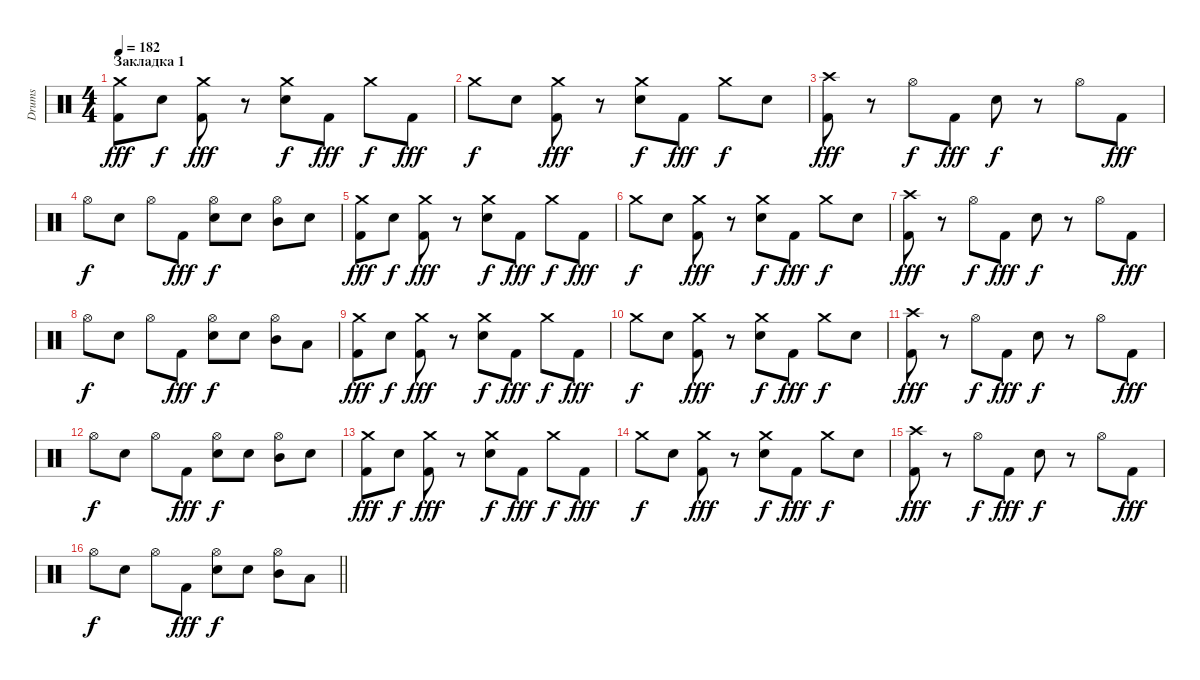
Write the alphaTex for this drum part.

\track ("Drums" "Drums") {instrument percussion}
\staff {score}
\articulation defaults
\ts (4 4)
\section ("" "Закладка 1")
\tempo 182
\clef neutral
\ks c
("Crash medium (hit)" "Kick (hit) 2").8{dy fff} "Electric Snare (hit)".8{dy f} ("Crash medium (hit)" "Kick (hit) 2").8{dy fff} r.8 ("Crash medium (hit)" "Electric Snare (hit)").8{dy f} "Kick (hit) 2".8{dy fff} "Crash medium (hit)".8{dy f} "Kick (hit) 2".8{dy fff} |
"Crash medium (hit)".8{dy f} "Electric Snare (hit)".8 ("Crash medium (hit)" "Kick (hit) 2").8{dy fff} r.8 ("Crash medium (hit)" "Electric Snare (hit)").8{dy f} "Kick (hit) 2".8{dy fff} "Crash medium (hit)".8{dy f} "Electric Snare (hit)".8 |
("Crash high (hit)" "Kick (hit) 2").8{dy fff} r.8 "Hi-Hat (open)".8{dy f} "Kick (hit) 2".8{dy fff} "Electric Snare (hit)".8{dy f} r.8 "Hi-Hat (open)".8 "Kick (hit) 2".8{dy fff} |
"Hi-Hat (open)".8{dy f} "Electric Snare (hit)".8 "Hi-Hat (open)".8 "Kick (hit) 2".8{dy fff} ("Hi-Hat (open)" "Electric Snare (hit)").8{dy f} "Electric Snare (hit)".8 ("Hi-Hat (open)" "Mid Tom (hit)").8 "Electric Snare (hit)".8 |
("Crash medium (hit)" "Kick (hit) 2").8{dy fff} "Electric Snare (hit)".8{dy f} ("Crash medium (hit)" "Kick (hit) 2").8{dy fff} r.8 ("Crash medium (hit)" "Electric Snare (hit)").8{dy f} "Kick (hit) 2".8{dy fff} "Crash medium (hit)".8{dy f} "Kick (hit) 2".8{dy fff} |
"Crash medium (hit)".8{dy f} "Electric Snare (hit)".8 ("Crash medium (hit)" "Kick (hit) 2").8{dy fff} r.8 ("Crash medium (hit)" "Electric Snare (hit)").8{dy f} "Kick (hit) 2".8{dy fff} "Crash medium (hit)".8{dy f} "Electric Snare (hit)".8 |
("Crash high (hit)" "Kick (hit) 2").8{dy fff} r.8 "Hi-Hat (open)".8{dy f} "Kick (hit) 2".8{dy fff} "Electric Snare (hit)".8{dy f} r.8 "Hi-Hat (open)".8 "Kick (hit) 2".8{dy fff} |
"Hi-Hat (open)".8{dy f} "Electric Snare (hit)".8 "Hi-Hat (open)".8 "Kick (hit) 2".8{dy fff} ("Hi-Hat (open)" "Electric Snare (hit)").8{dy f} "Electric Snare (hit)".8 ("Hi-Hat (open)" "Mid Tom (hit)").8 "Low Tom (hit)".8 |
("Crash medium (hit)" "Kick (hit) 2").8{dy fff} "Electric Snare (hit)".8{dy f} ("Crash medium (hit)" "Kick (hit) 2").8{dy fff} r.8 ("Crash medium (hit)" "Electric Snare (hit)").8{dy f} "Kick (hit) 2".8{dy fff} "Crash medium (hit)".8{dy f} "Kick (hit) 2".8{dy fff} |
"Crash medium (hit)".8{dy f} "Electric Snare (hit)".8 ("Crash medium (hit)" "Kick (hit) 2").8{dy fff} r.8 ("Crash medium (hit)" "Electric Snare (hit)").8{dy f} "Kick (hit) 2".8{dy fff} "Crash medium (hit)".8{dy f} "Electric Snare (hit)".8 |
("Crash high (hit)" "Kick (hit) 2").8{dy fff} r.8 "Hi-Hat (open)".8{dy f} "Kick (hit) 2".8{dy fff} "Electric Snare (hit)".8{dy f} r.8 "Hi-Hat (open)".8 "Kick (hit) 2".8{dy fff} |
"Hi-Hat (open)".8{dy f} "Electric Snare (hit)".8 "Hi-Hat (open)".8 "Kick (hit) 2".8{dy fff} ("Hi-Hat (open)" "Electric Snare (hit)").8{dy f} "Electric Snare (hit)".8 ("Hi-Hat (open)" "Mid Tom (hit)").8 "Electric Snare (hit)".8 |
("Crash medium (hit)" "Kick (hit) 2").8{dy fff} "Electric Snare (hit)".8{dy f} ("Crash medium (hit)" "Kick (hit) 2").8{dy fff} r.8 ("Crash medium (hit)" "Electric Snare (hit)").8{dy f} "Kick (hit) 2".8{dy fff} "Crash medium (hit)".8{dy f} "Kick (hit) 2".8{dy fff} |
"Crash medium (hit)".8{dy f} "Electric Snare (hit)".8 ("Crash medium (hit)" "Kick (hit) 2").8{dy fff} r.8 ("Crash medium (hit)" "Electric Snare (hit)").8{dy f} "Kick (hit) 2".8{dy fff} "Crash medium (hit)".8{dy f} "Electric Snare (hit)".8 |
("Crash high (hit)" "Kick (hit) 2").8{dy fff} r.8 "Hi-Hat (open)".8{dy f} "Kick (hit) 2".8{dy fff} "Electric Snare (hit)".8{dy f} r.8 "Hi-Hat (open)".8 "Kick (hit) 2".8{dy fff} |
\barLineRight lightlight "Hi-Hat (open)".8{dy f} "Electric Snare (hit)".8 "Hi-Hat (open)".8 "Kick (hit) 2".8{dy fff}
("Hi-Hat (open)" "Electric Snare (hit)").8{dy f} "Electric Snare (hit)".8 ("Hi-Hat (open)" "Mid Tom (hit)").8 "Low Tom (hit)".8
